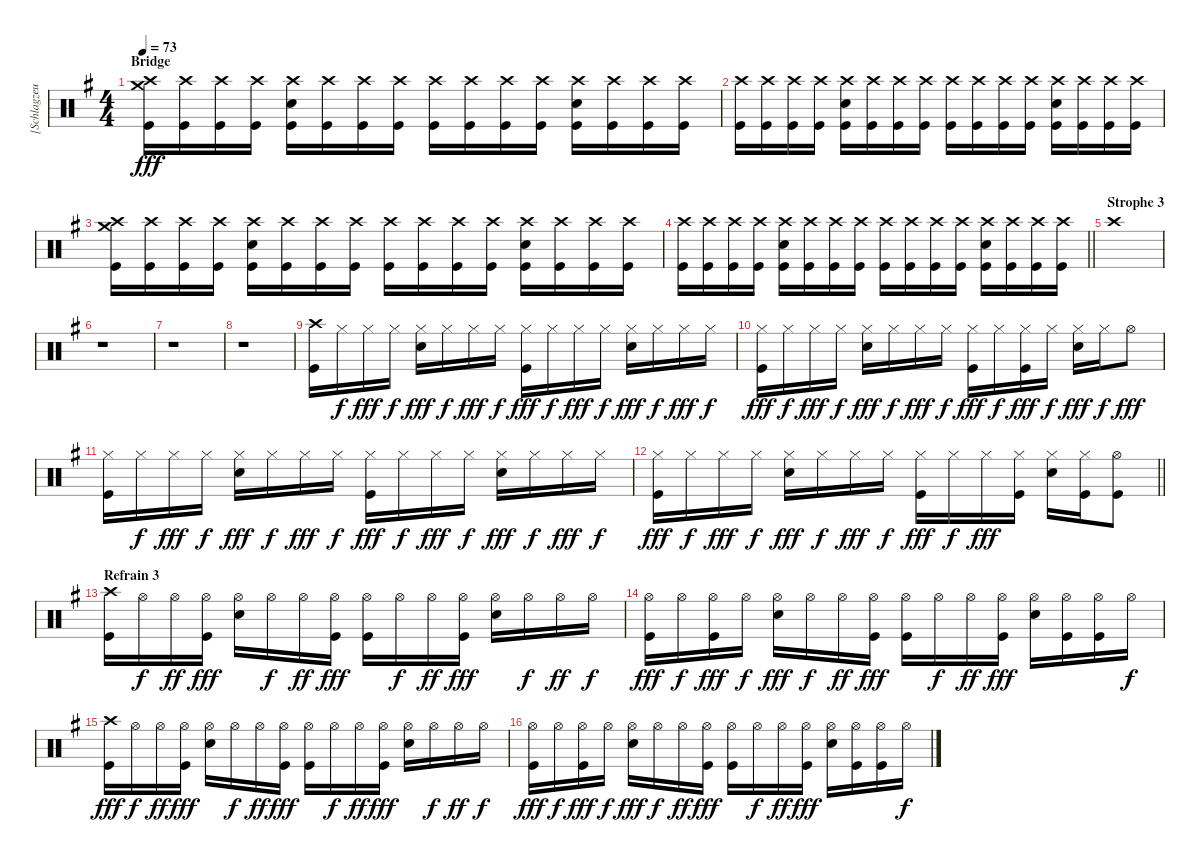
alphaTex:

\track ("[Schlagzeug]" "[Schlagzeu") {instrument percussion}
\staff {score}
\articulation defaults
\ts (4 4)
\section ("" "Bridge")
\tempo 73
\clef neutral
\ks eminor
("Crash high (hit)" "Kick (hit)" "Crash medium (hit)").16{dy fff} ("Crash high (hit)" "Kick (hit)").16 ("Crash high (hit)" "Kick (hit)").16 ("Crash high (hit)" "Kick (hit)").16 ("Crash high (hit)" "Kick (hit)" "Electric Snare (hit)").16 ("Crash high (hit)" "Kick (hit)").16 ("Crash high (hit)" "Kick (hit)").16 ("Crash high (hit)" "Kick (hit)").16 ("Crash high (hit)" "Kick (hit)").16 ("Crash high (hit)" "Kick (hit)").16 ("Crash high (hit)" "Kick (hit)").16 ("Crash high (hit)" "Kick (hit)").16 ("Crash high (hit)" "Kick (hit)" "Electric Snare (hit)").16 ("Crash high (hit)" "Kick (hit)").16 ("Crash high (hit)" "Kick (hit)").16 ("Crash high (hit)" "Kick (hit)").16 |
("Crash high (hit)" "Kick (hit)").16 ("Crash high (hit)" "Kick (hit)").16 ("Crash high (hit)" "Kick (hit)").16 ("Crash high (hit)" "Kick (hit)").16 ("Crash high (hit)" "Kick (hit)" "Electric Snare (hit)").16 ("Crash high (hit)" "Kick (hit)").16 ("Crash high (hit)" "Kick (hit)").16 ("Crash high (hit)" "Kick (hit)").16 ("Crash high (hit)" "Kick (hit)").16 ("Crash high (hit)" "Kick (hit)").16 ("Crash high (hit)" "Kick (hit)").16 ("Crash high (hit)" "Kick (hit)").16 ("Crash high (hit)" "Kick (hit)" "Electric Snare (hit)").16 ("Crash high (hit)" "Kick (hit)").16 ("Crash high (hit)" "Kick (hit)").16 ("Crash high (hit)" "Kick (hit)").16 |
("Crash high (hit)" "Kick (hit)" "Crash medium (hit)").16 ("Crash high (hit)" "Kick (hit)").16 ("Crash high (hit)" "Kick (hit)").16 ("Crash high (hit)" "Kick (hit)").16 ("Crash high (hit)" "Kick (hit)" "Electric Snare (hit)").16 ("Crash high (hit)" "Kick (hit)").16 ("Crash high (hit)" "Kick (hit)").16 ("Crash high (hit)" "Kick (hit)").16 ("Crash high (hit)" "Kick (hit)").16 ("Crash high (hit)" "Kick (hit)").16 ("Crash high (hit)" "Kick (hit)").16 ("Crash high (hit)" "Kick (hit)").16 ("Crash high (hit)" "Kick (hit)" "Electric Snare (hit)").16 ("Crash high (hit)" "Kick (hit)").16 ("Crash high (hit)" "Kick (hit)").16 ("Crash high (hit)" "Kick (hit)").16 |
\barLineRight lightlight
("Crash high (hit)" "Kick (hit)").16 ("Crash high (hit)" "Kick (hit)").16 ("Crash high (hit)" "Kick (hit)").16 ("Crash high (hit)" "Kick (hit)").16 ("Crash high (hit)" "Kick (hit)" "Electric Snare (hit)").16 ("Crash high (hit)" "Kick (hit)").16 ("Crash high (hit)" "Kick (hit)").16 ("Crash high (hit)" "Kick (hit)").16 ("Crash high (hit)" "Kick (hit)").16 ("Crash high (hit)" "Kick (hit)").16 ("Crash high (hit)" "Kick (hit)").16 ("Crash high (hit)" "Kick (hit)").16 ("Crash high (hit)" "Kick (hit)" "Electric Snare (hit)").16 ("Crash high (hit)" "Kick (hit)").16 ("Crash high (hit)" "Kick (hit)").16 ("Crash high (hit)" "Kick (hit)").16 |
\section ("" "Strophe 3")
"Crash high (hit)".1 |
r.1 |
r.1 |
r.1 |
("Crash high (hit)" "Kick (hit)").16 "Hi-Hat (closed)".16{dy f} "Hi-Hat (closed)".16{dy fff} "Hi-Hat (closed)".16{dy f} ("Hi-Hat (closed)" "Electric Snare (hit)").16{dy fff} "Hi-Hat (closed)".16{dy f} "Hi-Hat (closed)".16{dy fff} "Hi-Hat (closed)".16{dy f} ("Hi-Hat (closed)" "Kick (hit)").16{dy fff} "Hi-Hat (closed)".16{dy f} "Hi-Hat (closed)".16{dy fff} "Hi-Hat (closed)".16{dy f} ("Hi-Hat (closed)" "Electric Snare (hit)").16{dy fff} "Hi-Hat (closed)".16{dy f} "Hi-Hat (closed)".16{dy fff} "Hi-Hat (closed)".16{dy f} |
("Hi-Hat (closed)" "Kick (hit)").16{dy fff} "Hi-Hat (closed)".16{dy f} "Hi-Hat (closed)".16{dy fff} "Hi-Hat (closed)".16{dy f} ("Hi-Hat (closed)" "Electric Snare (hit)").16{dy fff} "Hi-Hat (closed)".16{dy f} "Hi-Hat (closed)".16{dy fff} "Hi-Hat (closed)".16{dy f} ("Hi-Hat (closed)" "Kick (hit)").16{dy fff} "Hi-Hat (closed)".16{dy f} ("Hi-Hat (closed)" "Kick (hit)").16{dy fff} "Hi-Hat (closed)".16{dy f} ("Hi-Hat (closed)" "Electric Snare (hit)").16{dy fff} "Hi-Hat (closed)".16{dy f} "Hi-Hat (open)".8{dy fff} |
("Hi-Hat (closed)" "Kick (hit)").16 "Hi-Hat (closed)".16{dy f} "Hi-Hat (closed)".16{dy fff} "Hi-Hat (closed)".16{dy f} ("Hi-Hat (closed)" "Electric Snare (hit)").16{dy fff} "Hi-Hat (closed)".16{dy f} "Hi-Hat (closed)".16{dy fff} "Hi-Hat (closed)".16{dy f} ("Hi-Hat (closed)" "Kick (hit)").16{dy fff} "Hi-Hat (closed)".16{dy f} "Hi-Hat (closed)".16{dy fff} "Hi-Hat (closed)".16{dy f} ("Hi-Hat (closed)" "Electric Snare (hit)").16{dy fff} "Hi-Hat (closed)".16{dy f} "Hi-Hat (closed)".16{dy fff} "Hi-Hat (closed)".16{dy f} |
\barLineRight lightlight
("Hi-Hat (closed)" "Kick (hit)").16{dy fff} "Hi-Hat (closed)".16{dy f} "Hi-Hat (closed)".16{dy fff} "Hi-Hat (closed)".16{dy f} ("Hi-Hat (closed)" "Electric Snare (hit)").16{dy fff} "Hi-Hat (closed)".16{dy f} "Hi-Hat (closed)".16{dy fff} "Hi-Hat (closed)".16{dy f} ("Hi-Hat (closed)" "Kick (hit)").16{dy fff} "Hi-Hat (closed)".16{dy f} "Hi-Hat (closed)".16{dy fff} ("Hi-Hat (closed)" "Kick (hit)").16 ("Hi-Hat (closed)" "Electric Snare (hit)").16 ("Hi-Hat (closed)" "Kick (hit)").16 ("Hi-Hat (open)" "Kick (hit)").8 |
\section ("" "Refrain 3")
("Crash high (hit)" "Kick (hit)").16 "Hi-Hat (open)".16{dy f} "Hi-Hat (open)".16{dy ff} ("Hi-Hat (open)" "Kick (hit)").16{dy fff} ("Hi-Hat (open)" "Electric Snare (hit)").16 "Hi-Hat (open)".16{dy f} "Hi-Hat (open)".16{dy ff} ("Hi-Hat (open)" "Kick (hit)").16{dy fff} ("Hi-Hat (open)" "Kick (hit)").16 "Hi-Hat (open)".16{dy f} "Hi-Hat (open)".16{dy ff} ("Hi-Hat (open)" "Kick (hit)").16{dy fff} ("Hi-Hat (open)" "Electric Snare (hit)").16 "Hi-Hat (open)".16{dy f} "Hi-Hat (open)".16{dy ff} "Hi-Hat (open)".16{dy f} |
("Hi-Hat (open)" "Kick (hit)").16{dy fff} "Hi-Hat (open)".16{dy f} ("Hi-Hat (open)" "Kick (hit)").16{dy fff} "Hi-Hat (open)".16{dy f} ("Hi-Hat (open)" "Electric Snare (hit)").16{dy fff} "Hi-Hat (open)".16{dy f} "Hi-Hat (open)".16{dy ff} ("Hi-Hat (open)" "Kick (hit)").16{dy fff} ("Hi-Hat (open)" "Kick (hit)").16 "Hi-Hat (open)".16{dy f} "Hi-Hat (open)".16{dy ff} ("Hi-Hat (open)" "Kick (hit)").16{dy fff} ("Hi-Hat (open)" "Electric Snare (hit)").16 ("Hi-Hat (open)" "Kick (hit)").16 ("Hi-Hat (open)" "Kick (hit)").16 "Hi-Hat (open)".16{dy f} |
("Crash high (hit)" "Kick (hit)").16{dy fff} "Hi-Hat (open)".16{dy f} "Hi-Hat (open)".16{dy ff} ("Hi-Hat (open)" "Kick (hit)").16{dy fff} ("Hi-Hat (open)" "Electric Snare (hit)").16 "Hi-Hat (open)".16{dy f} "Hi-Hat (open)".16{dy ff} ("Hi-Hat (open)" "Kick (hit)").16{dy fff} ("Hi-Hat (open)" "Kick (hit)").16 "Hi-Hat (open)".16{dy f} "Hi-Hat (open)".16{dy ff} ("Hi-Hat (open)" "Kick (hit)").16{dy fff} ("Hi-Hat (open)" "Electric Snare (hit)").16 "Hi-Hat (open)".16{dy f} "Hi-Hat (open)".16{dy ff} "Hi-Hat (open)".16{dy f} |
("Hi-Hat (open)" "Kick (hit)").16{dy fff} "Hi-Hat (open)".16{dy f} ("Hi-Hat (open)" "Kick (hit)").16{dy fff} "Hi-Hat (open)".16{dy f} ("Hi-Hat (open)" "Electric Snare (hit)").16{dy fff} "Hi-Hat (open)".16{dy f} "Hi-Hat (open)".16{dy ff} ("Hi-Hat (open)" "Kick (hit)").16{dy fff} ("Hi-Hat (open)" "Kick (hit)").16 "Hi-Hat (open)".16{dy f} "Hi-Hat (open)".16{dy ff} ("Hi-Hat (open)" "Kick (hit)").16{dy fff} ("Hi-Hat (open)" "Electric Snare (hit)").16 ("Hi-Hat (open)" "Kick (hit)").16 ("Hi-Hat (open)" "Kick (hit)").16 "Hi-Hat (open)".16{dy f}
